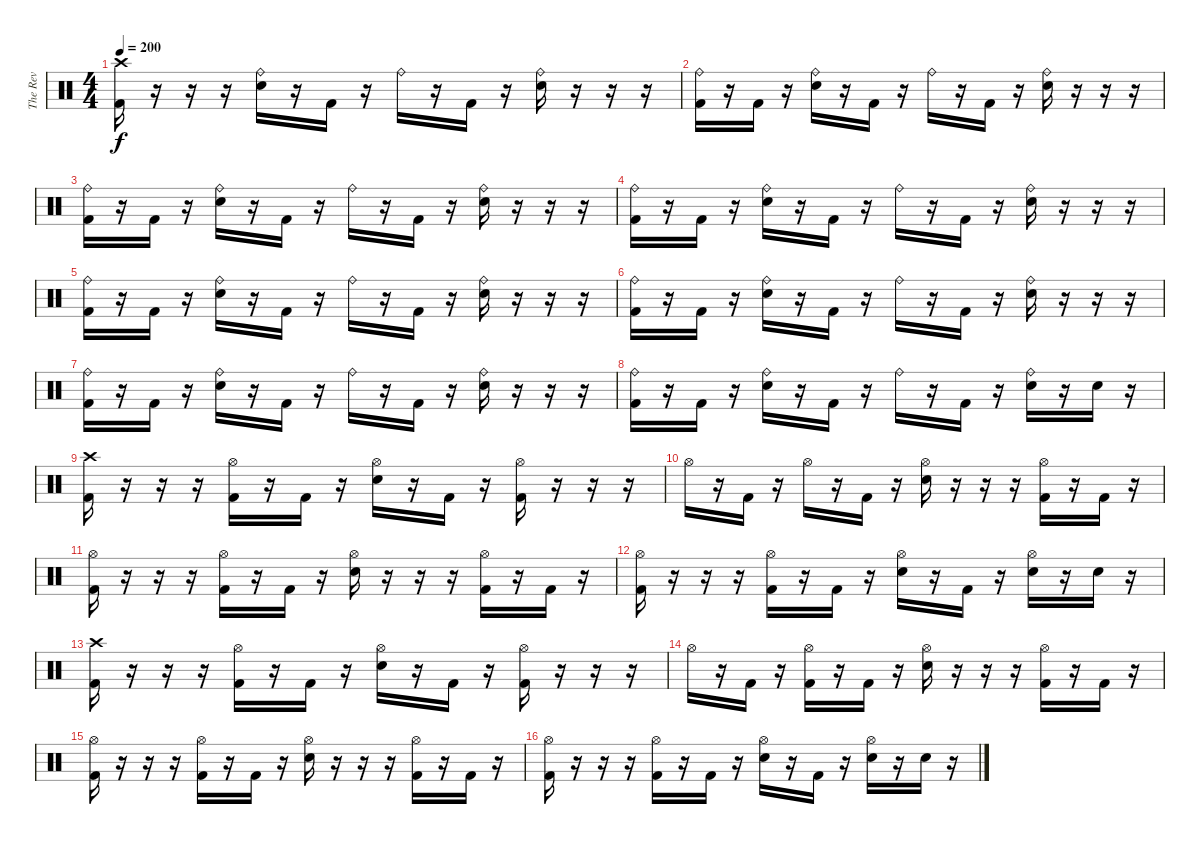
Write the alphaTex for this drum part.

\track ("The Rev" "The Rev") {instrument percussion}
\staff {score}
\articulation defaults
\ts (4 4)
\tempo 200
\clef neutral
\ks c
("Crash high (hit)" "Kick (hit) 2").16{dy f} r.16 r.16 r.16 ("Ride (bell)" "Electric Snare (hit)").16 r.16 "Kick (hit) 2".16 r.16 "Ride (bell)".16 r.16 "Kick (hit) 2".16 r.16 ("Ride (bell)" "Electric Snare (hit)").16 r.16 r.16 r.16 |
("Ride (bell)" "Kick (hit) 2").16 r.16 "Kick (hit) 2".16 r.16 ("Ride (bell)" "Electric Snare (hit)").16 r.16 "Kick (hit) 2".16 r.16 "Ride (bell)".16 r.16 "Kick (hit) 2".16 r.16 ("Ride (bell)" "Electric Snare (hit)").16 r.16 r.16 r.16 |
("Ride (bell)" "Kick (hit) 2").16 r.16 "Kick (hit) 2".16 r.16 ("Ride (bell)" "Electric Snare (hit)").16 r.16 "Kick (hit) 2".16 r.16 "Ride (bell)".16 r.16 "Kick (hit) 2".16 r.16 ("Ride (bell)" "Electric Snare (hit)").16 r.16 r.16 r.16 |
("Ride (bell)" "Kick (hit) 2").16 r.16 "Kick (hit) 2".16 r.16 ("Ride (bell)" "Electric Snare (hit)").16 r.16 "Kick (hit) 2".16 r.16 "Ride (bell)".16 r.16 "Kick (hit) 2".16 r.16 ("Ride (bell)" "Electric Snare (hit)").16 r.16 r.16 r.16 |
("Ride (bell)" "Kick (hit) 2").16 r.16 "Kick (hit) 2".16 r.16 ("Ride (bell)" "Electric Snare (hit)").16 r.16 "Kick (hit) 2".16 r.16 "Ride (bell)".16 r.16 "Kick (hit) 2".16 r.16 ("Ride (bell)" "Electric Snare (hit)").16 r.16 r.16 r.16 |
("Ride (bell)" "Kick (hit) 2").16 r.16 "Kick (hit) 2".16 r.16 ("Ride (bell)" "Electric Snare (hit)").16 r.16 "Kick (hit) 2".16 r.16 "Ride (bell)".16 r.16 "Kick (hit) 2".16 r.16 ("Ride (bell)" "Electric Snare (hit)").16 r.16 r.16 r.16 |
("Ride (bell)" "Kick (hit) 2").16 r.16 "Kick (hit) 2".16 r.16 ("Ride (bell)" "Electric Snare (hit)").16 r.16 "Kick (hit) 2".16 r.16 "Ride (bell)".16 r.16 "Kick (hit) 2".16 r.16 ("Ride (bell)" "Electric Snare (hit)").16 r.16 r.16 r.16 |
("Ride (bell)" "Kick (hit) 2").16 r.16 "Kick (hit) 2".16 r.16 ("Ride (bell)" "Electric Snare (hit)").16 r.16 "Kick (hit) 2".16 r.16 "Ride (bell)".16 r.16 "Kick (hit) 2".16 r.16 ("Ride (bell)" "Electric Snare (hit)").16 r.16 "Electric Snare (hit)".16 r.16 |
("Crash high (hit)" "Kick (hit) 2").16 r.16 r.16 r.16 ("Hi-Hat (open)" "Kick (hit) 2").16 r.16 "Kick (hit) 2".16 r.16 ("Hi-Hat (open)" "Electric Snare (hit)").16 r.16 "Kick (hit) 2".16 r.16 ("Hi-Hat (open)" "Kick (hit) 2").16 r.16 r.16 r.16 |
"Hi-Hat (open)".16 r.16 "Kick (hit) 2".16 r.16 "Hi-Hat (open)".16 r.16 "Kick (hit) 2".16 r.16 ("Hi-Hat (open)" "Electric Snare (hit)").16 r.16 r.16 r.16 ("Hi-Hat (open)" "Kick (hit) 2").16 r.16 "Kick (hit) 2".16 r.16 |
("Hi-Hat (open)" "Kick (hit) 2").16 r.16 r.16 r.16 ("Hi-Hat (open)" "Kick (hit) 2").16 r.16 "Kick (hit) 2".16 r.16 ("Hi-Hat (open)" "Electric Snare (hit)").16 r.16 r.16 r.16 ("Hi-Hat (open)" "Kick (hit) 2").16 r.16 "Kick (hit) 2".16 r.16 |
("Hi-Hat (open)" "Kick (hit) 2").16 r.16 r.16 r.16 ("Hi-Hat (open)" "Kick (hit) 2").16 r.16 "Kick (hit) 2".16 r.16 ("Hi-Hat (open)" "Electric Snare (hit)").16 r.16 "Kick (hit) 2".16 r.16 ("Hi-Hat (open)" "Electric Snare (hit)").16 r.16 "Electric Snare (hit)".16 r.16 |
("Crash high (hit)" "Kick (hit) 2").16 r.16 r.16 r.16 ("Hi-Hat (open)" "Kick (hit) 2").16 r.16 "Kick (hit) 2".16 r.16 ("Hi-Hat (open)" "Electric Snare (hit)").16 r.16 "Kick (hit) 2".16 r.16 ("Hi-Hat (open)" "Kick (hit) 2").16 r.16 r.16 r.16 |
"Hi-Hat (open)".16 r.16 "Kick (hit) 2".16 r.16 ("Hi-Hat (open)" "Kick (hit) 2").16 r.16 "Kick (hit) 2".16 r.16 ("Hi-Hat (open)" "Electric Snare (hit)").16 r.16 r.16 r.16 ("Hi-Hat (open)" "Kick (hit) 2").16 r.16 "Kick (hit) 2".16 r.16 |
("Hi-Hat (open)" "Kick (hit) 2").16 r.16 r.16 r.16 ("Hi-Hat (open)" "Kick (hit) 2").16 r.16 "Kick (hit) 2".16 r.16 ("Hi-Hat (open)" "Electric Snare (hit)").16 r.16 r.16 r.16 ("Hi-Hat (open)" "Kick (hit) 2").16 r.16 "Kick (hit) 2".16 r.16 |
("Hi-Hat (open)" "Kick (hit) 2").16 r.16 r.16 r.16 ("Hi-Hat (open)" "Kick (hit) 2").16 r.16 "Kick (hit) 2".16 r.16 ("Hi-Hat (open)" "Electric Snare (hit)").16 r.16 "Kick (hit) 2".16 r.16 ("Hi-Hat (open)" "Electric Snare (hit)").16 r.16 "Electric Snare (hit)".16 r.16
